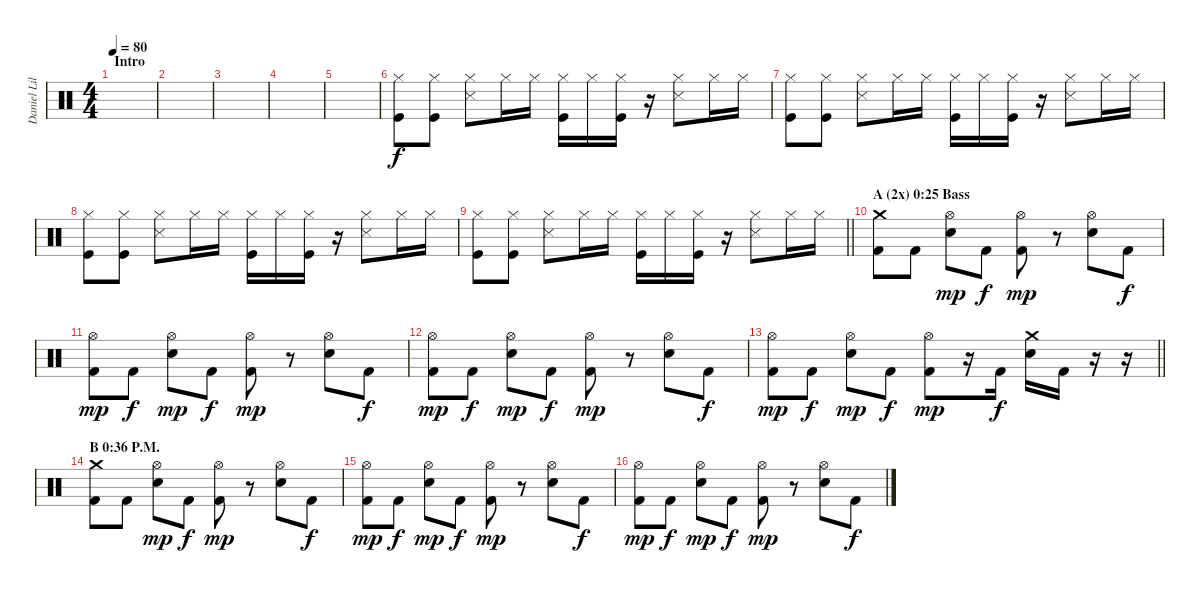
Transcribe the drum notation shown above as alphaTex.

\track ("Daniel Liljekvist (Drums)" "Daniel Lil") {instrument percussion}
\staff {score}
\articulation defaults
\ts (4 4)
\section ("" "Intro")
\tempo 80
\clef neutral
\ks c
|
|
|
|
|
("Kick (hit)" "Hi-Hat (closed)").8 ("Kick (hit)" "Hi-Hat (closed)").8 ("Snare (side stick) 3" "Hi-Hat (closed)").8 "Hi-Hat (closed)".16 "Hi-Hat (closed)".16 ("Kick (hit)" "Hi-Hat (closed)").16 "Hi-Hat (closed)".16 ("Kick (hit)" "Hi-Hat (closed)").16 r.16 ("Snare (side stick) 3" "Hi-Hat (closed)").8 "Hi-Hat (closed)".16 "Hi-Hat (closed)".16 |
("Kick (hit)" "Hi-Hat (closed)").8 ("Kick (hit)" "Hi-Hat (closed)").8 ("Snare (side stick) 3" "Hi-Hat (closed)").8 "Hi-Hat (closed)".16 "Hi-Hat (closed)".16 ("Kick (hit)" "Hi-Hat (closed)").16 "Hi-Hat (closed)".16 ("Kick (hit)" "Hi-Hat (closed)").16 r.16 ("Snare (side stick) 3" "Hi-Hat (closed)").8 "Hi-Hat (closed)".16 "Hi-Hat (closed)".16 |
("Kick (hit)" "Hi-Hat (closed)").8 ("Kick (hit)" "Hi-Hat (closed)").8 ("Snare (side stick) 3" "Hi-Hat (closed)").8 "Hi-Hat (closed)".16 "Hi-Hat (closed)".16 ("Kick (hit)" "Hi-Hat (closed)").16 "Hi-Hat (closed)".16 ("Kick (hit)" "Hi-Hat (closed)").16 r.16 ("Snare (side stick) 3" "Hi-Hat (closed)").8 "Hi-Hat (closed)".16 "Hi-Hat (closed)".16 |
\barLineRight lightlight
("Kick (hit)" "Hi-Hat (closed)").8 ("Kick (hit)" "Hi-Hat (closed)").8 ("Snare (side stick) 3" "Hi-Hat (closed)").8 "Hi-Hat (closed)".16 "Hi-Hat (closed)".16 ("Kick (hit)" "Hi-Hat (closed)").16 "Hi-Hat (closed)".16 ("Kick (hit)" "Hi-Hat (closed)").16 r.16 ("Snare (side stick) 3" "Hi-Hat (closed)").8 "Hi-Hat (closed)".16 "Hi-Hat (closed)".16 |
\section ("" "A (2x) 0:25 Bass")
("Kick (hit) 2" "Crash medium (hit)").8{dy f} "Kick (hit) 2".8 ("Electric Snare (hit)" "Hi-Hat (open)").8{dy mp} "Kick (hit) 2".8{dy f} ("Kick (hit) 2" "Hi-Hat (open)").8{dy mp} r.8 ("Electric Snare (hit)" "Hi-Hat (open)").8 "Kick (hit) 2".8{dy f} |
("Kick (hit) 2" "Hi-Hat (open)").8{dy mp} "Kick (hit) 2".8{dy f} ("Electric Snare (hit)" "Hi-Hat (open)").8{dy mp} "Kick (hit) 2".8{dy f} ("Kick (hit) 2" "Hi-Hat (open)").8{dy mp} r.8 ("Electric Snare (hit)" "Hi-Hat (open)").8 "Kick (hit) 2".8{dy f} |
("Kick (hit) 2" "Hi-Hat (open)").8{dy mp} "Kick (hit) 2".8{dy f} ("Electric Snare (hit)" "Hi-Hat (open)").8{dy mp} "Kick (hit) 2".8{dy f} ("Kick (hit) 2" "Hi-Hat (open)").8{dy mp} r.8 ("Electric Snare (hit)" "Hi-Hat (open)").8 "Kick (hit) 2".8{dy f} |
\barLineRight lightlight
("Kick (hit) 2" "Hi-Hat (open)").8{dy mp} "Kick (hit) 2".8{dy f} ("Electric Snare (hit)" "Hi-Hat (open)").8{dy mp} "Kick (hit) 2".8{dy f} ("Kick (hit) 2" "Hi-Hat (open)").8{dy mp} r.16 "Kick (hit) 2".16{dy f} ("Electric Snare (hit)" "Crash medium (hit)").16 "Kick (hit) 2".16 r.16 r.16 |
\section ("" "B 0:36 P.M.")
("Kick (hit) 2" "Crash medium (hit)").8 "Kick (hit) 2".8 ("Electric Snare (hit)" "Hi-Hat (open)").8{dy mp} "Kick (hit) 2".8{dy f} ("Kick (hit) 2" "Hi-Hat (open)").8{dy mp} r.8 ("Electric Snare (hit)" "Hi-Hat (open)").8 "Kick (hit) 2".8{dy f} |
("Kick (hit) 2" "Hi-Hat (open)").8{dy mp} "Kick (hit) 2".8{dy f} ("Electric Snare (hit)" "Hi-Hat (open)").8{dy mp} "Kick (hit) 2".8{dy f} ("Kick (hit) 2" "Hi-Hat (open)").8{dy mp} r.8 ("Electric Snare (hit)" "Hi-Hat (open)").8 "Kick (hit) 2".8{dy f} |
("Kick (hit) 2" "Hi-Hat (open)").8{dy mp} "Kick (hit) 2".8{dy f} ("Electric Snare (hit)" "Hi-Hat (open)").8{dy mp} "Kick (hit) 2".8{dy f} ("Kick (hit) 2" "Hi-Hat (open)").8{dy mp} r.8 ("Electric Snare (hit)" "Hi-Hat (open)").8 "Kick (hit) 2".8{dy f}
